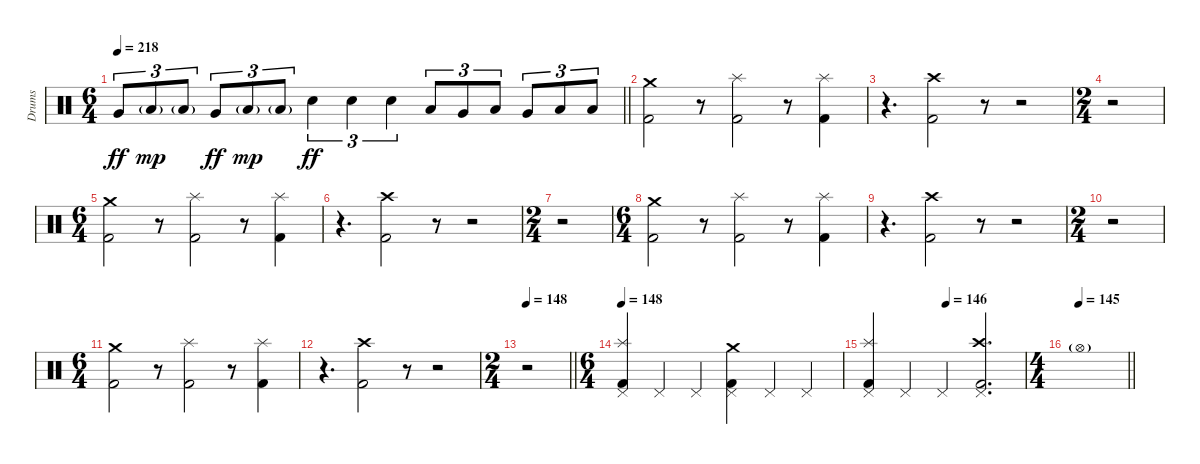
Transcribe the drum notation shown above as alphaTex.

\track ("Drums" "Drums") {instrument percussion}
\staff {score}
\articulation defaults
\ts (6 4)
\tempo 218
\clef neutral
\barLineRight lightlight
\ks c "Very Low Tom (hit)".8{tu (3 2) dy ff} "Low Floor Tom (hit)"{g}.8{tu (3 2) dy mp} "Low Floor Tom (hit)"{g}.8{tu (3 2)} "Very Low Tom (hit)".8{tu (3 2) dy ff} "Low Floor Tom (hit)"{g}.8{tu (3 2) dy mp} "Low Floor Tom (hit)"{g}.8{tu (3 2)} "Electric Snare (hit)".4{tu (3 2) dy ff} "Electric Snare (hit)".4{tu (3 2)} "Electric Snare (hit)".4{tu (3 2)} "Low Floor Tom (hit)".8{tu (3 2)} "Very Low Tom (hit)".8{tu (3 2)} "Low Tom (hit)".8{tu (3 2)} "Very Low Tom (hit)".8{tu (3 2)} "Low Floor Tom (hit)".8{tu (3 2)} "Low Floor Tom (hit)".8{tu (3 2)}
|
\section ("" "")
("Crash medium (hit)" "Kick (hit) 2").2 r.8 ("Splash (hit)" "Kick (hit) 2").2 r.8 ("Splash (hit)" "Kick (hit) 2").4 |
r.4{d} ("Crash high (hit)" "Kick (hit) 2").2 r.8 r.2 |
\ts (2 4)
r.2 |
\ts (6 4)
("Crash medium (hit)" "Kick (hit) 2").2 r.8 ("Splash (hit)" "Kick (hit) 2").2 r.8 ("Splash (hit)" "Kick (hit) 2").4 |
r.4{d} ("Crash high (hit)" "Kick (hit) 2").2 r.8 r.2 |
\ts (2 4)
r.2 |
\ts (6 4)
("Crash medium (hit)" "Kick (hit) 2").2 r.8 ("Splash (hit)" "Kick (hit) 2").2 r.8 ("Splash (hit)" "Kick (hit) 2").4 |
r.4{d} ("Crash high (hit)" "Kick (hit) 2").2 r.8 r.2 |
\ts (2 4)
r.2 |
\ts (6 4)
("Crash medium (hit)" "Kick (hit) 2").2 r.8 ("Splash (hit)" "Kick (hit) 2").2 r.8 ("Splash (hit)" "Kick (hit) 2").4 |
r.4{d} ("Crash high (hit)" "Kick (hit) 2").2 r.8 r.2 |
\ts (2 4)
\tempo 148
\barLineRight lightlight
r.2 |
\ts (6 4)
\section ("" "")
\tempo 148
("Splash (hit)" "Pedal Hi-Hat (hit)" "Kick (hit) 2").4 "Pedal Hi-Hat (hit)".4 "Pedal Hi-Hat (hit)".4 ("Crash medium (hit)" "Pedal Hi-Hat (hit)" "Kick (hit) 2").4 "Pedal Hi-Hat (hit)".4 "Pedal Hi-Hat (hit)".4 |
\tempo (146 0.5)
("Splash (hit)" "Pedal Hi-Hat (hit)" "Kick (hit) 2").4 "Pedal Hi-Hat (hit)".4 "Pedal Hi-Hat (hit)".4 ("Crash high (hit)" "Pedal Hi-Hat (hit)" "Kick (hit) 2").2{d} |
\ts (4 4)
\tempo 145
\barLineRight lightlight "Hi-Hat (open)"{g}.1
